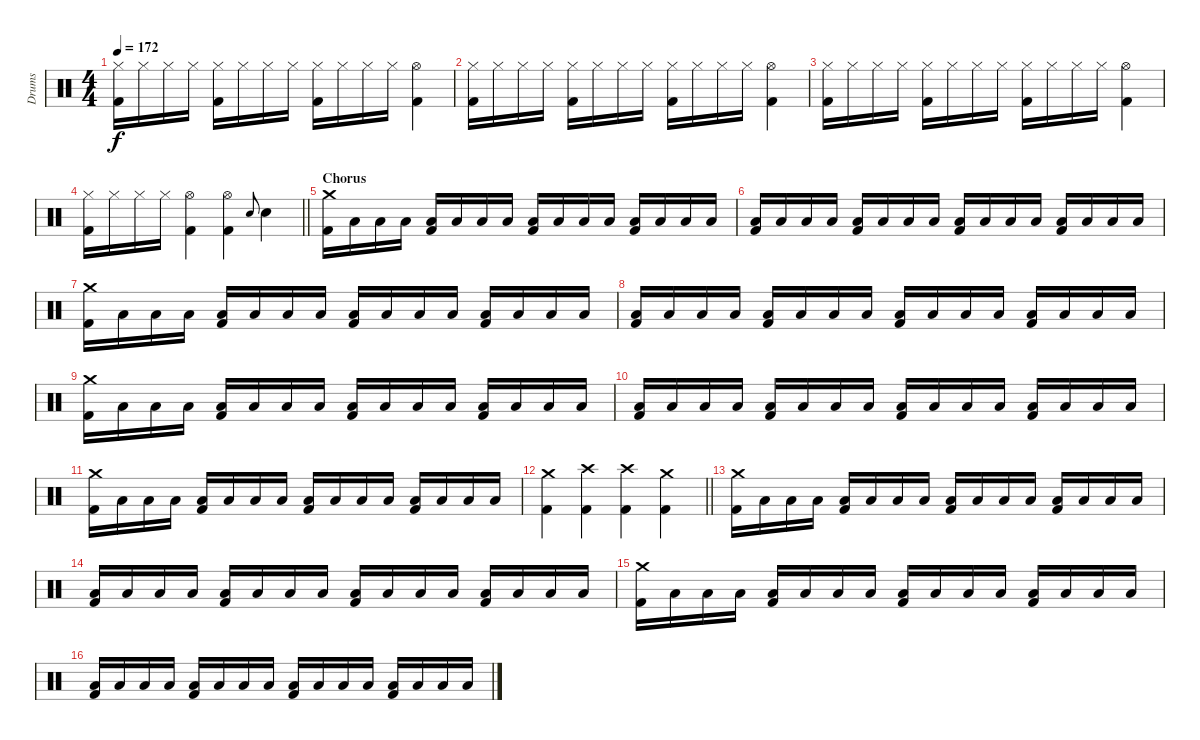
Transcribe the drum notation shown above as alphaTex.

\track ("Drums" "Drums") {instrument percussion}
\staff {score}
\articulation defaults
\ts (4 4)
\tempo 172
\clef neutral
\ks c
("Hi-Hat (closed)" "Kick (hit) 2").16{dy f} "Hi-Hat (closed)".16 "Hi-Hat (closed)".16 "Hi-Hat (closed)".16 ("Hi-Hat (closed)" "Kick (hit) 2").16 "Hi-Hat (closed)".16 "Hi-Hat (closed)".16 "Hi-Hat (closed)".16 ("Hi-Hat (closed)" "Kick (hit) 2").16 "Hi-Hat (closed)".16 "Hi-Hat (closed)".16 "Hi-Hat (closed)".16 ("Hi-Hat (open)" "Kick (hit) 2").4 |
("Hi-Hat (closed)" "Kick (hit) 2").16 "Hi-Hat (closed)".16 "Hi-Hat (closed)".16 "Hi-Hat (closed)".16 ("Hi-Hat (closed)" "Kick (hit) 2").16 "Hi-Hat (closed)".16 "Hi-Hat (closed)".16 "Hi-Hat (closed)".16 ("Hi-Hat (closed)" "Kick (hit) 2").16 "Hi-Hat (closed)".16 "Hi-Hat (closed)".16 "Hi-Hat (closed)".16 ("Hi-Hat (open)" "Kick (hit) 2").4 |
("Hi-Hat (closed)" "Kick (hit) 2").16 "Hi-Hat (closed)".16 "Hi-Hat (closed)".16 "Hi-Hat (closed)".16 ("Hi-Hat (closed)" "Kick (hit) 2").16 "Hi-Hat (closed)".16 "Hi-Hat (closed)".16 "Hi-Hat (closed)".16 ("Hi-Hat (closed)" "Kick (hit) 2").16 "Hi-Hat (closed)".16 "Hi-Hat (closed)".16 "Hi-Hat (closed)".16 ("Hi-Hat (open)" "Kick (hit) 2").4 |
\barLineRight lightlight
("Hi-Hat (closed)" "Kick (hit) 2").16 "Hi-Hat (closed)".16 "Hi-Hat (closed)".16 "Hi-Hat (closed)".16 ("Hi-Hat (open)" "Kick (hit) 2").4 ("Hi-Hat (open)" "Kick (hit) 2").4 "Electric Snare (hit)".8{gr onbeat} "Electric Snare (hit)".4 |
\section ("" "Chorus")
("Crash medium (hit)" "Kick (hit) 2").16 "Low Tom (hit)".16 "Low Tom (hit)".16 "Low Tom (hit)".16 ("Low Tom (hit)" "Kick (hit) 2").16 "Low Tom (hit)".16 "Low Tom (hit)".16 "Low Tom (hit)".16 ("Low Tom (hit)" "Kick (hit) 2").16 "Low Tom (hit)".16 "Low Tom (hit)".16 "Low Tom (hit)".16 ("Low Tom (hit)" "Kick (hit) 2").16 "Low Tom (hit)".16 "Low Tom (hit)".16 "Low Tom (hit)".16 |
("Low Tom (hit)" "Kick (hit) 2").16 "Low Tom (hit)".16 "Low Tom (hit)".16 "Low Tom (hit)".16 ("Low Tom (hit)" "Kick (hit) 2").16 "Low Tom (hit)".16 "Low Tom (hit)".16 "Low Tom (hit)".16 ("Low Tom (hit)" "Kick (hit) 2").16 "Low Tom (hit)".16 "Low Tom (hit)".16 "Low Tom (hit)".16 ("Low Tom (hit)" "Kick (hit) 2").16 "Low Tom (hit)".16 "Low Tom (hit)".16 "Low Tom (hit)".16 |
("Crash medium (hit)" "Kick (hit) 2").16 "Low Tom (hit)".16 "Low Tom (hit)".16 "Low Tom (hit)".16 ("Low Tom (hit)" "Kick (hit) 2").16 "Low Tom (hit)".16 "Low Tom (hit)".16 "Low Tom (hit)".16 ("Low Tom (hit)" "Kick (hit) 2").16 "Low Tom (hit)".16 "Low Tom (hit)".16 "Low Tom (hit)".16 ("Low Tom (hit)" "Kick (hit) 2").16 "Low Tom (hit)".16 "Low Tom (hit)".16 "Low Tom (hit)".16 |
("Low Tom (hit)" "Kick (hit) 2").16 "Low Tom (hit)".16 "Low Tom (hit)".16 "Low Tom (hit)".16 ("Low Tom (hit)" "Kick (hit) 2").16 "Low Tom (hit)".16 "Low Tom (hit)".16 "Low Tom (hit)".16 ("Low Tom (hit)" "Kick (hit) 2").16 "Low Tom (hit)".16 "Low Tom (hit)".16 "Low Tom (hit)".16 ("Low Tom (hit)" "Kick (hit) 2").16 "Low Tom (hit)".16 "Low Tom (hit)".16 "Low Tom (hit)".16 |
("Crash medium (hit)" "Kick (hit) 2").16 "Low Tom (hit)".16 "Low Tom (hit)".16 "Low Tom (hit)".16 ("Low Tom (hit)" "Kick (hit) 2").16 "Low Tom (hit)".16 "Low Tom (hit)".16 "Low Tom (hit)".16 ("Low Tom (hit)" "Kick (hit) 2").16 "Low Tom (hit)".16 "Low Tom (hit)".16 "Low Tom (hit)".16 ("Low Tom (hit)" "Kick (hit) 2").16 "Low Tom (hit)".16 "Low Tom (hit)".16 "Low Tom (hit)".16 |
("Low Tom (hit)" "Kick (hit) 2").16 "Low Tom (hit)".16 "Low Tom (hit)".16 "Low Tom (hit)".16 ("Low Tom (hit)" "Kick (hit) 2").16 "Low Tom (hit)".16 "Low Tom (hit)".16 "Low Tom (hit)".16 ("Low Tom (hit)" "Kick (hit) 2").16 "Low Tom (hit)".16 "Low Tom (hit)".16 "Low Tom (hit)".16 ("Low Tom (hit)" "Kick (hit) 2").16 "Low Tom (hit)".16 "Low Tom (hit)".16 "Low Tom (hit)".16 |
("Crash medium (hit)" "Kick (hit) 2").16 "Low Tom (hit)".16 "Low Tom (hit)".16 "Low Tom (hit)".16 ("Low Tom (hit)" "Kick (hit) 2").16 "Low Tom (hit)".16 "Low Tom (hit)".16 "Low Tom (hit)".16 ("Low Tom (hit)" "Kick (hit) 2").16 "Low Tom (hit)".16 "Low Tom (hit)".16 "Low Tom (hit)".16 ("Low Tom (hit)" "Kick (hit) 2").16 "Low Tom (hit)".16 "Low Tom (hit)".16 "Low Tom (hit)".16 |
\barLineRight lightlight
("Crash medium (hit)" "Kick (hit) 2").4 ("Crash high (hit)" "Kick (hit) 2").4 ("Crash high (hit)" "Kick (hit) 2").4 ("Crash medium (hit)" "Kick (hit) 2").4 |
("Crash medium (hit)" "Kick (hit) 2").16 "Low Tom (hit)".16 "Low Tom (hit)".16 "Low Tom (hit)".16 ("Low Tom (hit)" "Kick (hit) 2").16 "Low Tom (hit)".16 "Low Tom (hit)".16 "Low Tom (hit)".16 ("Low Tom (hit)" "Kick (hit) 2").16 "Low Tom (hit)".16 "Low Tom (hit)".16 "Low Tom (hit)".16 ("Low Tom (hit)" "Kick (hit) 2").16 "Low Tom (hit)".16 "Low Tom (hit)".16 "Low Tom (hit)".16 |
("Low Tom (hit)" "Kick (hit) 2").16 "Low Tom (hit)".16 "Low Tom (hit)".16 "Low Tom (hit)".16 ("Low Tom (hit)" "Kick (hit) 2").16 "Low Tom (hit)".16 "Low Tom (hit)".16 "Low Tom (hit)".16 ("Low Tom (hit)" "Kick (hit) 2").16 "Low Tom (hit)".16 "Low Tom (hit)".16 "Low Tom (hit)".16 ("Low Tom (hit)" "Kick (hit) 2").16 "Low Tom (hit)".16 "Low Tom (hit)".16 "Low Tom (hit)".16 |
("Crash medium (hit)" "Kick (hit) 2").16 "Low Tom (hit)".16 "Low Tom (hit)".16 "Low Tom (hit)".16 ("Low Tom (hit)" "Kick (hit) 2").16 "Low Tom (hit)".16 "Low Tom (hit)".16 "Low Tom (hit)".16 ("Low Tom (hit)" "Kick (hit) 2").16 "Low Tom (hit)".16 "Low Tom (hit)".16 "Low Tom (hit)".16 ("Low Tom (hit)" "Kick (hit) 2").16 "Low Tom (hit)".16 "Low Tom (hit)".16 "Low Tom (hit)".16 |
("Low Tom (hit)" "Kick (hit) 2").16 "Low Tom (hit)".16 "Low Tom (hit)".16 "Low Tom (hit)".16 ("Low Tom (hit)" "Kick (hit) 2").16 "Low Tom (hit)".16 "Low Tom (hit)".16 "Low Tom (hit)".16 ("Low Tom (hit)" "Kick (hit) 2").16 "Low Tom (hit)".16 "Low Tom (hit)".16 "Low Tom (hit)".16 ("Low Tom (hit)" "Kick (hit) 2").16 "Low Tom (hit)".16 "Low Tom (hit)".16 "Low Tom (hit)".16
